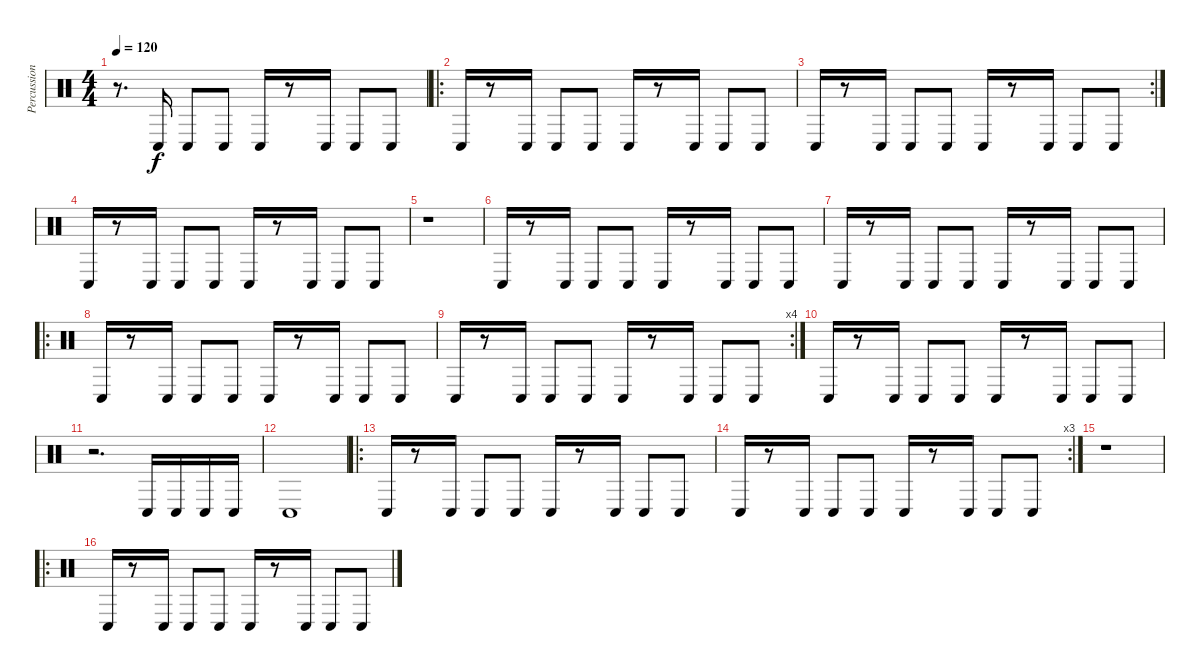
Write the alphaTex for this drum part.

\track ("Percussions" "Percussion") {instrument percussion}
\staff {score}
\articulation defaults
\ts (4 4)
\tempo 120
\clef neutral
\ks c
r.8{d dy f} "Conga low (hit)".16 "Conga low (hit)".8 "Conga low (hit)".8 "Conga low (hit)".16 r.8 "Conga low (hit)".16 "Conga low (hit)".8 "Conga low (hit)".8 |
\ro "Conga low (hit)".16
r.8 "Conga low (hit)".16 "Conga low (hit)".8 "Conga low (hit)".8 "Conga low (hit)".16 r.8 "Conga low (hit)".16 "Conga low (hit)".8 "Conga low (hit)".8 |
\rc 2 "Conga low (hit)".16
r.8 "Conga low (hit)".16 "Conga low (hit)".8 "Conga low (hit)".8 "Conga low (hit)".16 r.8 "Conga low (hit)".16 "Conga low (hit)".8 "Conga low (hit)".8 |
"Conga low (hit)".16 r.8 "Conga low (hit)".16 "Conga low (hit)".8 "Conga low (hit)".8 "Conga low (hit)".16 r.8 "Conga low (hit)".16 "Conga low (hit)".8 "Conga low (hit)".8 |
r.1 |
"Conga low (hit)".16 r.8 "Conga low (hit)".16 "Conga low (hit)".8 "Conga low (hit)".8 "Conga low (hit)".16 r.8 "Conga low (hit)".16 "Conga low (hit)".8 "Conga low (hit)".8 |
"Conga low (hit)".16 r.8 "Conga low (hit)".16 "Conga low (hit)".8 "Conga low (hit)".8 "Conga low (hit)".16 r.8 "Conga low (hit)".16 "Conga low (hit)".8 "Conga low (hit)".8 |
\ro "Conga low (hit)".16
r.8 "Conga low (hit)".16 "Conga low (hit)".8 "Conga low (hit)".8 "Conga low (hit)".16 r.8 "Conga low (hit)".16 "Conga low (hit)".8 "Conga low (hit)".8 |
\rc 4 "Conga low (hit)".16
r.8 "Conga low (hit)".16 "Conga low (hit)".8 "Conga low (hit)".8 "Conga low (hit)".16 r.8 "Conga low (hit)".16 "Conga low (hit)".8 "Conga low (hit)".8 |
"Conga low (hit)".16 r.8 "Conga low (hit)".16 "Conga low (hit)".8 "Conga low (hit)".8 "Conga low (hit)".16 r.8 "Conga low (hit)".16 "Conga low (hit)".8 "Conga low (hit)".8 |
r.2{d} "Conga low (hit)".16 "Conga low (hit)".16 "Conga low (hit)".16 "Conga low (hit)".16 |
"Conga low (hit)".1 |
\ro "Conga low (hit)".16
r.8 "Conga low (hit)".16 "Conga low (hit)".8 "Conga low (hit)".8 "Conga low (hit)".16 r.8 "Conga low (hit)".16 "Conga low (hit)".8 "Conga low (hit)".8 |
\rc 3 "Conga low (hit)".16
r.8 "Conga low (hit)".16 "Conga low (hit)".8 "Conga low (hit)".8 "Conga low (hit)".16 r.8 "Conga low (hit)".16 "Conga low (hit)".8 "Conga low (hit)".8 |
r.1 |
\ro "Conga low (hit)".16
r.8 "Conga low (hit)".16 "Conga low (hit)".8 "Conga low (hit)".8 "Conga low (hit)".16 r.8 "Conga low (hit)".16 "Conga low (hit)".8 "Conga low (hit)".8
